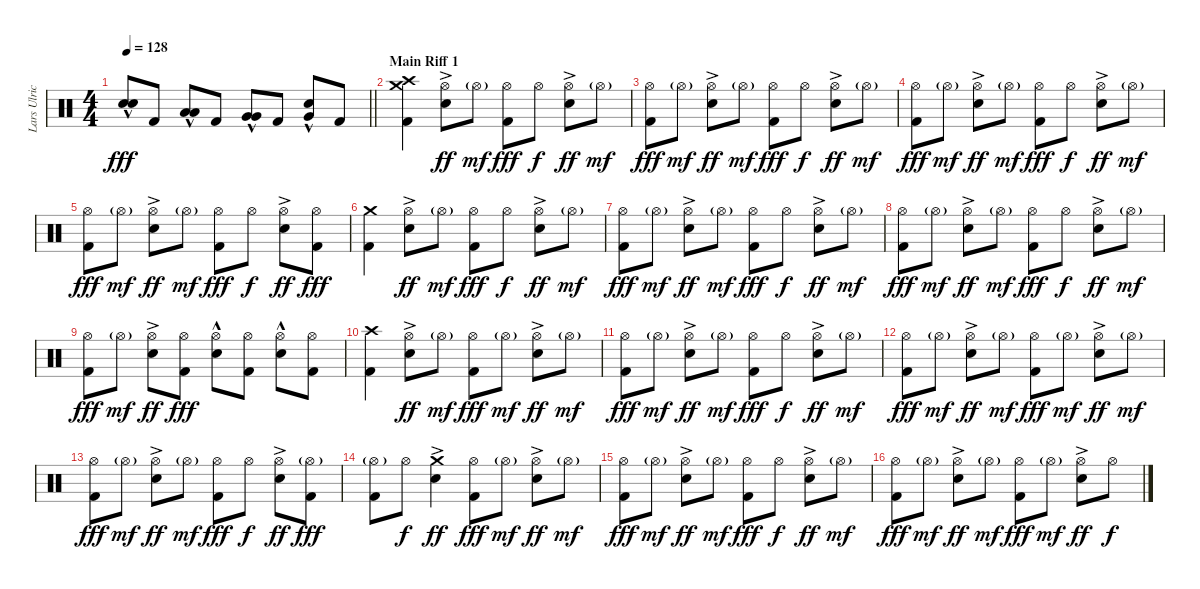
\track ("Lars Ulrich (Drums)" "Lars Ulric") {instrument percussion}
\staff {score}
\articulation defaults
\ts (4 4)
\tempo 128
\clef neutral
\barLineRight lightlight
\ks c
("Electric Snare (hit)"{hac} "Electric Snare (hit)"{hac}).8{bd 120 dy fff} "Kick (hit) 2".8 ("Low Tom (hit)"{hac} "Low Tom (hit)"{hac}).8{bu 60} "Kick (hit) 2".8 ("Very Low Tom (hit)"{hac} "Very Low Tom (hit)"{hac}).8{bu 60} "Kick (hit) 2".8 ("Electric Snare (hit)"{hac} "Very Low Tom (hit)"{hac}).8{bu 60} "Kick (hit) 2".8 |
\section ("" "Main Riff 1")
("Crash medium (hit)" "Crash high (hit)" "Kick (hit) 2").4 ("Hi-Hat (open)"{ac} "Electric Snare (hit)"{ac}).8{dy ff} "Hi-Hat (open)"{g}.8{dy mf} ("Hi-Hat (open)" "Kick (hit) 2").8{dy fff} "Hi-Hat (open)".8{dy f} ("Hi-Hat (open)"{ac} "Electric Snare (hit)"{ac}).8{dy ff} "Hi-Hat (open)"{g}.8{dy mf} |
("Hi-Hat (open)" "Kick (hit) 2").8{dy fff} "Hi-Hat (open)"{g}.8{dy mf} ("Hi-Hat (open)"{ac} "Electric Snare (hit)"{ac}).8{dy ff} "Hi-Hat (open)"{g}.8{dy mf} ("Hi-Hat (open)" "Kick (hit) 2").8{dy fff} "Hi-Hat (open)".8{dy f} ("Hi-Hat (open)"{ac} "Electric Snare (hit)"{ac}).8{dy ff} "Hi-Hat (open)"{g}.8{dy mf} |
("Hi-Hat (open)" "Kick (hit) 2").8{dy fff} "Hi-Hat (open)"{g}.8{dy mf} ("Hi-Hat (open)"{ac} "Electric Snare (hit)"{ac}).8{dy ff} "Hi-Hat (open)"{g}.8{dy mf} ("Hi-Hat (open)" "Kick (hit) 2").8{dy fff} "Hi-Hat (open)".8{dy f} ("Hi-Hat (open)"{ac} "Electric Snare (hit)"{ac}).8{dy ff} "Hi-Hat (open)"{g}.8{dy mf} |
("Hi-Hat (open)" "Kick (hit) 2").8{dy fff} "Hi-Hat (open)"{g}.8{dy mf} ("Hi-Hat (open)"{ac} "Electric Snare (hit)"{ac}).8{dy ff} "Hi-Hat (open)"{g}.8{dy mf} ("Hi-Hat (open)" "Kick (hit) 2").8{dy fff} "Hi-Hat (open)".8{dy f} ("Hi-Hat (open)"{ac} "Electric Snare (hit)"{ac}).8{dy ff} ("Hi-Hat (open)" "Kick (hit) 2").8{dy fff} |
("Crash medium (hit)" "Kick (hit) 2").4 ("Hi-Hat (open)"{ac} "Electric Snare (hit)"{ac}).8{dy ff} "Hi-Hat (open)"{g}.8{dy mf} ("Hi-Hat (open)" "Kick (hit) 2").8{dy fff} "Hi-Hat (open)".8{dy f} ("Hi-Hat (open)"{ac} "Electric Snare (hit)"{ac}).8{dy ff} "Hi-Hat (open)"{g}.8{dy mf} |
("Hi-Hat (open)" "Kick (hit) 2").8{dy fff} "Hi-Hat (open)"{g}.8{dy mf} ("Hi-Hat (open)"{ac} "Electric Snare (hit)"{ac}).8{dy ff} "Hi-Hat (open)"{g}.8{dy mf} ("Hi-Hat (open)" "Kick (hit) 2").8{dy fff} "Hi-Hat (open)".8{dy f} ("Hi-Hat (open)"{ac} "Electric Snare (hit)"{ac}).8{dy ff} "Hi-Hat (open)"{g}.8{dy mf} |
("Hi-Hat (open)" "Kick (hit) 2").8{dy fff} "Hi-Hat (open)"{g}.8{dy mf} ("Hi-Hat (open)"{ac} "Electric Snare (hit)"{ac}).8{dy ff} "Hi-Hat (open)"{g}.8{dy mf} ("Hi-Hat (open)" "Kick (hit) 2").8{dy fff} "Hi-Hat (open)".8{dy f} ("Hi-Hat (open)"{ac} "Electric Snare (hit)"{ac}).8{dy ff} "Hi-Hat (open)"{g}.8{dy mf} |
("Hi-Hat (open)" "Kick (hit) 2").8{dy fff} "Hi-Hat (open)"{g}.8{dy mf} ("Hi-Hat (open)"{ac} "Electric Snare (hit)"{ac}).8{dy ff} ("Hi-Hat (open)" "Kick (hit) 2").8{dy fff} ("Hi-Hat (open)"{hac} "Electric Snare (hit)"{hac}).8 ("Hi-Hat (open)" "Kick (hit) 2").8 ("Hi-Hat (open)"{hac} "Electric Snare (hit)"{hac}).8 ("Hi-Hat (open)" "Kick (hit) 2").8 |
("Crash high (hit)" "Kick (hit) 2").4 ("Hi-Hat (open)"{ac} "Electric Snare (hit)"{ac}).8{dy ff} "Hi-Hat (open)"{g}.8{dy mf} ("Hi-Hat (open)" "Kick (hit) 2").8{dy fff} "Hi-Hat (open)"{g}.8{dy mf} ("Hi-Hat (open)"{ac} "Electric Snare (hit)"{ac}).8{dy ff} "Hi-Hat (open)"{g}.8{dy mf} |
("Hi-Hat (open)" "Kick (hit) 2").8{dy fff} "Hi-Hat (open)"{g}.8{dy mf} ("Hi-Hat (open)"{ac} "Electric Snare (hit)"{ac}).8{dy ff} "Hi-Hat (open)"{g}.8{dy mf} ("Hi-Hat (open)" "Kick (hit) 2").8{dy fff} "Hi-Hat (open)".8{dy f} ("Hi-Hat (open)"{ac} "Electric Snare (hit)"{ac}).8{dy ff} "Hi-Hat (open)"{g}.8{dy mf} |
("Hi-Hat (open)" "Kick (hit) 2").8{dy fff} "Hi-Hat (open)"{g}.8{dy mf} ("Hi-Hat (open)"{ac} "Electric Snare (hit)"{ac}).8{dy ff} "Hi-Hat (open)"{g}.8{dy mf} ("Hi-Hat (open)" "Kick (hit) 2").8{dy fff} "Hi-Hat (open)"{g}.8{dy mf} ("Hi-Hat (open)"{ac} "Electric Snare (hit)"{ac}).8{dy ff} "Hi-Hat (open)"{g}.8{dy mf} |
("Hi-Hat (open)" "Kick (hit) 2").8{dy fff} "Hi-Hat (open)"{g}.8{dy mf} ("Hi-Hat (open)"{ac} "Electric Snare (hit)"{ac}).8{dy ff} "Hi-Hat (open)"{g}.8{dy mf} ("Hi-Hat (open)" "Kick (hit) 2").8{dy fff} "Hi-Hat (open)".8{dy f} ("Hi-Hat (open)"{ac} "Electric Snare (hit)"{ac}).8{dy ff} ("Hi-Hat (open)"{g} "Kick (hit) 2").8{dy fff} |
("Hi-Hat (open)"{g} "Kick (hit) 2").8 "Hi-Hat (open)".8{dy f} ("Crash medium (hit)" "Electric Snare (hit)"{ac}).4{dy ff} ("Hi-Hat (open)" "Kick (hit) 2").8{dy fff} "Hi-Hat (open)"{g}.8{dy mf} ("Hi-Hat (open)"{ac} "Electric Snare (hit)"{ac}).8{dy ff} "Hi-Hat (open)"{g}.8{dy mf} |
("Hi-Hat (open)" "Kick (hit) 2").8{dy fff} "Hi-Hat (open)"{g}.8{dy mf} ("Hi-Hat (open)"{ac} "Electric Snare (hit)"{ac}).8{dy ff} "Hi-Hat (open)"{g}.8{dy mf} ("Hi-Hat (open)" "Kick (hit) 2").8{dy fff} "Hi-Hat (open)".8{dy f} ("Hi-Hat (open)"{ac} "Electric Snare (hit)"{ac}).8{dy ff} "Hi-Hat (open)"{g}.8{dy mf} |
("Hi-Hat (open)" "Kick (hit) 2").8{dy fff} "Hi-Hat (open)"{g}.8{dy mf} ("Hi-Hat (open)"{ac} "Electric Snare (hit)"{ac}).8{dy ff} "Hi-Hat (open)"{g}.8{dy mf} ("Hi-Hat (open)" "Kick (hit) 2").8{dy fff} "Hi-Hat (open)"{g}.8{dy mf} ("Hi-Hat (open)"{ac} "Electric Snare (hit)"{ac}).8{dy ff} "Hi-Hat (open)".8{dy f}
